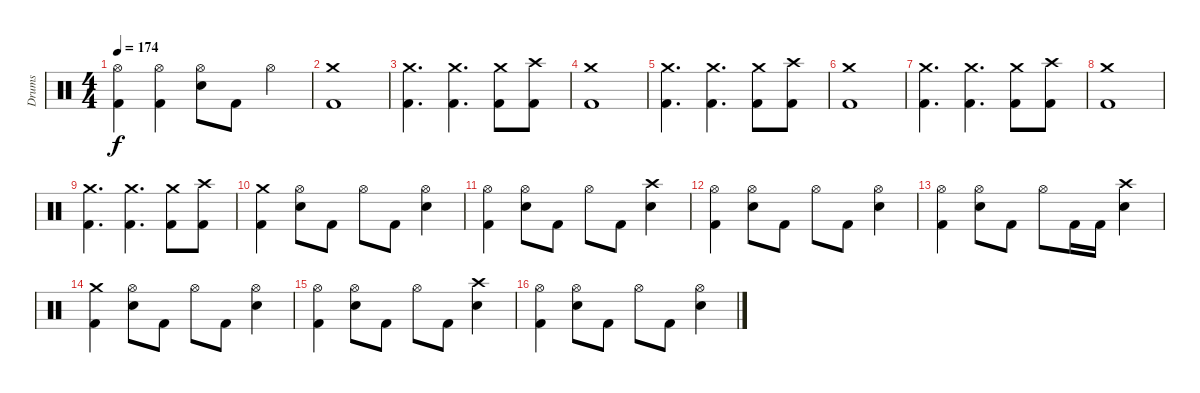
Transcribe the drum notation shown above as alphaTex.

\track ("Drums" "Drums") {instrument percussion}
\staff {score}
\articulation defaults
\ts (4 4)
\tempo 174
\clef neutral
\ks c
("Hi-Hat (open)" "Kick (hit) 2").4{dy f} ("Hi-Hat (open)" "Kick (hit) 2").4 ("Hi-Hat (open)" "Snare (hit) 2").8 "Kick (hit) 2".8 "Hi-Hat (open)".4 |
("Crash medium (hit)" "Kick (hit) 2").1 |
("Crash medium (hit)" "Kick (hit) 2").4{d} ("Crash medium (hit)" "Kick (hit) 2").4{d} ("Crash medium (hit)" "Kick (hit) 2").8 ("Crash high (hit)" "Kick (hit) 2").8 |
("Crash medium (hit)" "Kick (hit) 2").1 |
("Crash medium (hit)" "Kick (hit) 2").4{d} ("Crash medium (hit)" "Kick (hit) 2").4{d} ("Crash medium (hit)" "Kick (hit) 2").8 ("Crash high (hit)" "Kick (hit) 2").8 |
("Crash medium (hit)" "Kick (hit) 2").1 |
("Crash medium (hit)" "Kick (hit) 2").4{d} ("Crash medium (hit)" "Kick (hit) 2").4{d} ("Crash medium (hit)" "Kick (hit) 2").8 ("Crash high (hit)" "Kick (hit) 2").8 |
("Crash medium (hit)" "Kick (hit) 2").1 |
("Crash medium (hit)" "Kick (hit) 2").4{d} ("Crash medium (hit)" "Kick (hit) 2").4{d} ("Crash medium (hit)" "Kick (hit) 2").8 ("Crash high (hit)" "Kick (hit) 2").8 |
("Crash medium (hit)" "Kick (hit) 2").4 ("Hi-Hat (open)" "Snare (hit) 2").8 "Kick (hit) 2".8 "Hi-Hat (open)".8 "Kick (hit) 2".8 ("Hi-Hat (open)" "Snare (hit) 2").4 |
("Hi-Hat (open)" "Kick (hit) 2").4 ("Hi-Hat (open)" "Snare (hit) 2").8 "Kick (hit) 2".8 "Hi-Hat (open)".8 "Kick (hit) 2".8 ("Crash high (hit)" "Snare (hit) 2").4 |
("Hi-Hat (open)" "Kick (hit) 2").4 ("Hi-Hat (open)" "Snare (hit) 2").8 "Kick (hit) 2".8 "Hi-Hat (open)".8 "Kick (hit) 2".8 ("Hi-Hat (open)" "Snare (hit) 2").4 |
("Hi-Hat (open)" "Kick (hit) 2").4 ("Hi-Hat (open)" "Snare (hit) 2").8 "Kick (hit) 2".8 "Hi-Hat (open)".8 "Kick (hit) 2".16 "Kick (hit) 2".16 ("Crash high (hit)" "Snare (hit) 2").4 |
("Crash medium (hit)" "Kick (hit) 2").4 ("Hi-Hat (open)" "Snare (hit) 2").8 "Kick (hit) 2".8 "Hi-Hat (open)".8 "Kick (hit) 2".8 ("Hi-Hat (open)" "Snare (hit) 2").4 |
("Hi-Hat (open)" "Kick (hit) 2").4 ("Hi-Hat (open)" "Snare (hit) 2").8 "Kick (hit) 2".8 "Hi-Hat (open)".8 "Kick (hit) 2".8 ("Crash high (hit)" "Snare (hit) 2").4 |
("Hi-Hat (open)" "Kick (hit) 2").4 ("Hi-Hat (open)" "Snare (hit) 2").8 "Kick (hit) 2".8 "Hi-Hat (open)".8 "Kick (hit) 2".8 ("Hi-Hat (open)" "Snare (hit) 2").4
